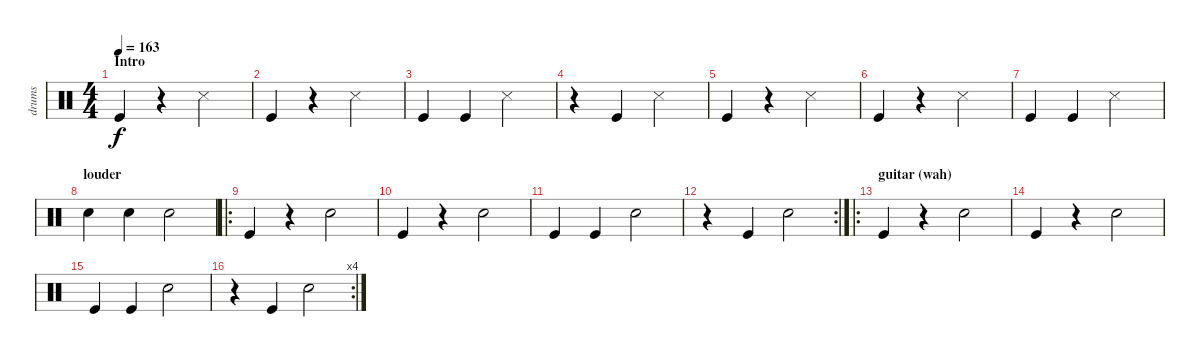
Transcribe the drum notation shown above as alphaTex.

\track ("drums" "drums") {instrument percussion}
\staff {score}
\articulation defaults
\ts (4 4)
\section ("" "Intro")
\tempo 163
\clef neutral
\ks c "Kick (hit)".4{dy f}
r.4 "Snare (side stick) 3".2 |
"Kick (hit)".4 r.4 "Snare (side stick) 3".2 |
"Kick (hit)".4 "Kick (hit)".4 "Snare (side stick) 3".2 |
r.4 "Kick (hit)".4 "Snare (side stick) 3".2 |
"Kick (hit)".4 r.4 "Snare (side stick) 3".2 |
"Kick (hit)".4 r.4 "Snare (side stick) 3".2 |
"Kick (hit)".4 "Kick (hit)".4 "Snare (side stick) 3".2 |
\section ("" "louder")
"Snare (hit) 2".4{volume 13} "Snare (hit) 2".4 "Snare (hit) 2".2 |
\ro "Kick (hit)".4
r.4 "Snare (hit) 2".2 |
"Kick (hit)".4 r.4 "Snare (hit) 2".2 |
"Kick (hit)".4 "Kick (hit)".4 "Snare (hit) 2".2 |
\rc 2
r.4 "Kick (hit)".4 "Snare (hit) 2".2 |
\ro
\section ("" "guitar (wah)")
"Kick (hit)".4 r.4 "Snare (hit) 2".2 |
"Kick (hit)".4 r.4 "Snare (hit) 2".2 |
"Kick (hit)".4 "Kick (hit)".4 "Snare (hit) 2".2 |
\rc 4
r.4 "Kick (hit)".4 "Snare (hit) 2".2
